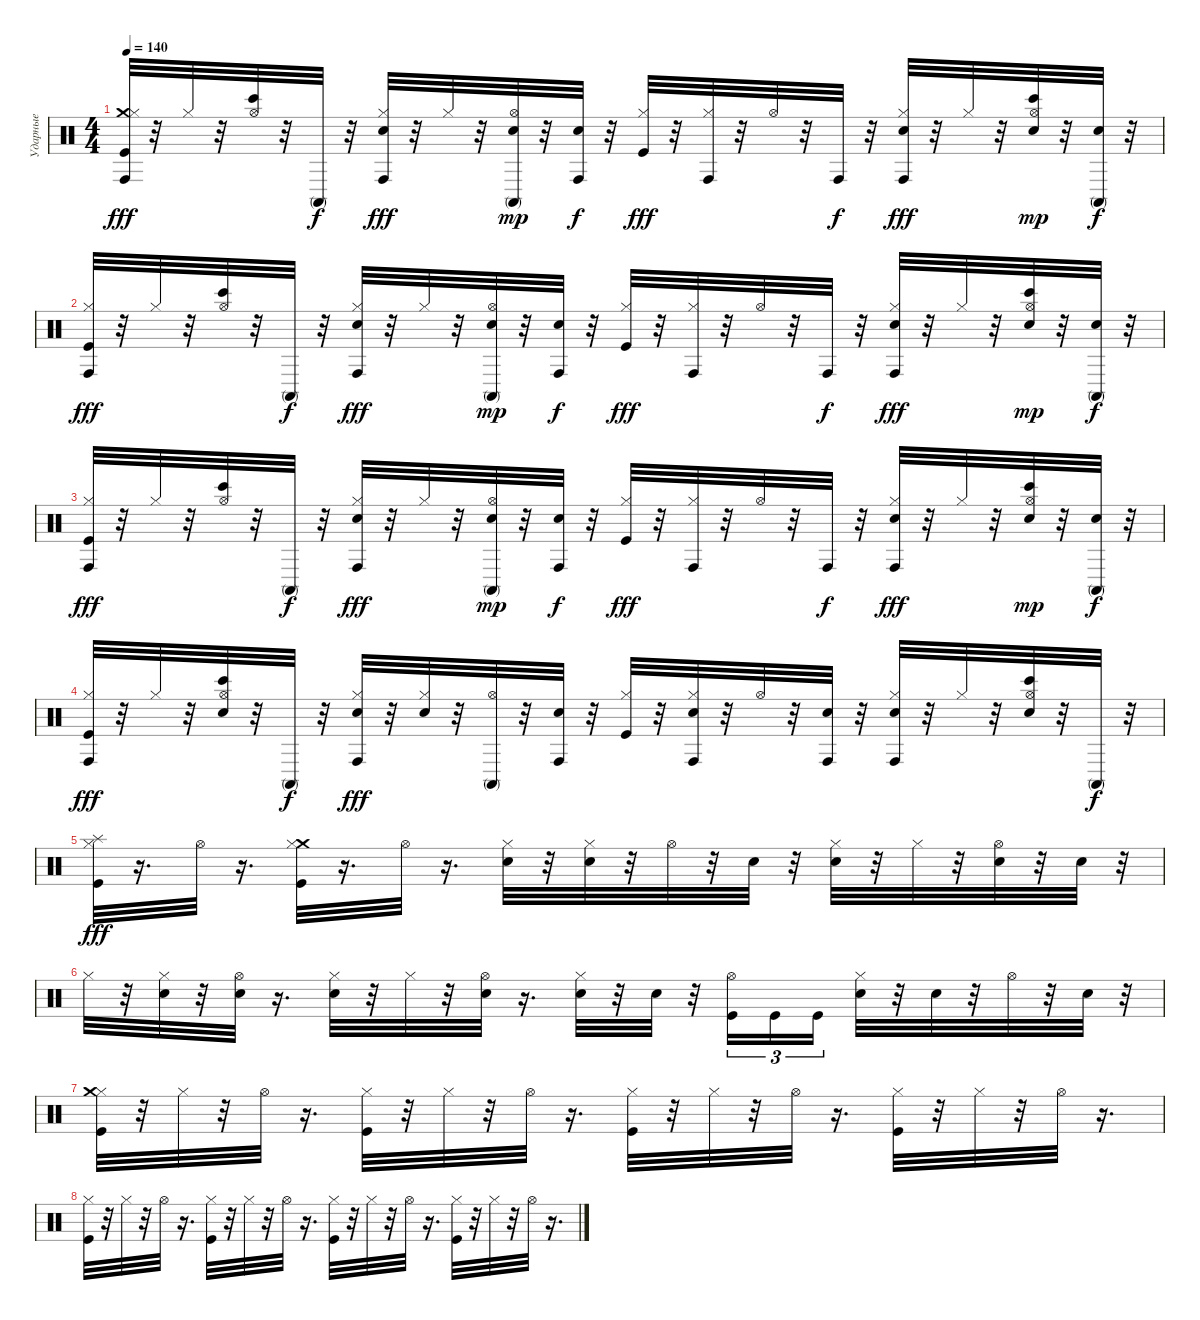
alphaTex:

\track ("Ударные" "Ударные") {instrument percussion}
\staff {score}
\articulation defaults
\ts (4 4)
\tempo 140
\clef neutral
\ks c
("Conga high (hit)" "Crash medium (hit)" "Hi-Hat (closed)" "Kick (hit)").32{dy fff} r.32 "Hi-Hat (closed)".32 r.32 ("Bongo High (hit)" "Hi-Hat (open)").32 r.32 "Conga high (mute)".32{dy f} r.32 ("Conga high (hit)" "Hi-Hat (closed)" "Electric Snare (hit)").32{dy fff} r.32 "Hi-Hat (closed)".32 r.32 ("Conga high (mute)" "Hi-Hat (open)" "Electric Snare (hit)").32{dy mp} r.32 ("Conga high (hit)" "Electric Snare (hit)").32{dy f} r.32 ("Hi-Hat (closed)" "Kick (hit)").32{dy fff} r.32 ("Conga high (hit)" "Hi-Hat (closed)").32 r.32 "Hi-Hat (open)".32 r.32 "Conga high (hit)".32{dy f} r.32 ("Conga high (hit)" "Hi-Hat (closed)" "Electric Snare (hit)").32{dy fff} r.32 "Hi-Hat (closed)".32 r.32 ("Bongo High (hit)" "Hi-Hat (open)" "Electric Snare (hit)").32{dy mp} r.32 ("Conga high (mute)" "Electric Snare (hit)").32{dy f} r.32 |
("Hi-Hat (closed)" "Kick (hit)" "Conga high (hit)").32{dy fff} r.32 "Hi-Hat (closed)".32 r.32 ("Hi-Hat (open)" "Bongo High (hit)").32 r.32 "Conga high (mute)".32{dy f} r.32 ("Hi-Hat (closed)" "Electric Snare (hit)" "Conga high (hit)").32{dy fff} r.32 "Hi-Hat (closed)".32 r.32 ("Hi-Hat (open)" "Electric Snare (hit)" "Conga high (mute)").32{dy mp} r.32 ("Electric Snare (hit)" "Conga high (hit)").32{dy f} r.32 ("Hi-Hat (closed)" "Kick (hit)").32{dy fff} r.32 ("Hi-Hat (closed)" "Conga high (hit)").32 r.32 "Hi-Hat (open)".32 r.32 "Conga high (hit)".32{dy f} r.32 ("Hi-Hat (closed)" "Electric Snare (hit)" "Conga high (hit)").32{dy fff} r.32 "Hi-Hat (closed)".32 r.32 ("Hi-Hat (open)" "Electric Snare (hit)" "Bongo High (hit)").32{dy mp} r.32 ("Electric Snare (hit)" "Conga high (mute)").32{dy f} r.32 |
("Kick (hit)" "Hi-Hat (closed)" "Conga high (hit)").32{dy fff} r.32 "Hi-Hat (closed)".32 r.32 ("Bongo High (hit)" "Hi-Hat (open)").32 r.32 "Conga high (mute)".32{dy f} r.32 ("Conga high (hit)" "Hi-Hat (closed)" "Electric Snare (hit)").32{dy fff} r.32 "Hi-Hat (closed)".32 r.32 ("Conga high (mute)" "Hi-Hat (open)" "Electric Snare (hit)").32{dy mp} r.32 ("Conga high (hit)" "Electric Snare (hit)").32{dy f} r.32 ("Hi-Hat (closed)" "Kick (hit)").32{dy fff} r.32 ("Conga high (hit)" "Hi-Hat (closed)").32 r.32 "Hi-Hat (open)".32 r.32 "Conga high (hit)".32{dy f} r.32 ("Conga high (hit)" "Hi-Hat (closed)" "Electric Snare (hit)").32{dy fff} r.32 "Hi-Hat (closed)".32 r.32 ("Bongo High (hit)" "Hi-Hat (open)" "Electric Snare (hit)").32{dy mp} r.32 ("Conga high (mute)" "Electric Snare (hit)").32{dy f} r.32 |
("Hi-Hat (closed)" "Kick (hit)" "Conga high (hit)").32{dy fff} r.32 "Hi-Hat (closed)".32 r.32 ("Hi-Hat (open)" "Bongo High (hit)" "Electric Snare (hit)").32 r.32 "Conga high (mute)".32{dy f} r.32 ("Hi-Hat (closed)" "Conga high (hit)" "Electric Snare (hit)").32{dy fff} r.32 ("Hi-Hat (closed)" "Electric Snare (hit)").32 r.32 ("Hi-Hat (open)" "Conga high (mute)").32 r.32 ("Conga high (hit)" "Electric Snare (hit)").32 r.32 ("Hi-Hat (closed)" "Kick (hit)").32 r.32 ("Hi-Hat (closed)" "Conga high (hit)" "Electric Snare (hit)").32 r.32 "Hi-Hat (open)".32 r.32 ("Conga high (hit)" "Electric Snare (hit)").32 r.32 ("Hi-Hat (closed)" "Conga high (hit)" "Electric Snare (hit)").32 r.32 "Hi-Hat (closed)".32 r.32 ("Hi-Hat (open)" "Bongo High (hit)" "Electric Snare (hit)").32 r.32 "Conga high (mute)".32{dy f} r.32 |
("Kick (hit)" "Hi-Hat (closed)" "Splash (hit)").32{dy fff} r.16{d} "Hi-Hat (open)".32 r.16{d} ("Kick (hit)" "Crash medium (hit)" "Hi-Hat (closed)").32 r.16{d} "Hi-Hat (open)".32 r.16{d} ("Hi-Hat (closed)" "Electric Snare (hit)").32 r.32 ("Hi-Hat (closed)" "Electric Snare (hit)").32 r.32 "Hi-Hat (open)".32 r.32 "Electric Snare (hit)".32 r.32 ("Hi-Hat (closed)" "Electric Snare (hit)").32 r.32 "Hi-Hat (closed)".32 r.32 ("Hi-Hat (open)" "Electric Snare (hit)").32 r.32 "Electric Snare (hit)".32 r.32 |
"Hi-Hat (closed)".32 r.32 ("Electric Snare (hit)" "Hi-Hat (closed)").32 r.32 ("Electric Snare (hit)" "Hi-Hat (open)").32 r.16{d} ("Electric Snare (hit)" "Hi-Hat (closed)").32 r.32 "Hi-Hat (closed)".32 r.32 ("Electric Snare (hit)" "Hi-Hat (open)").32 r.16{d} ("Hi-Hat (closed)" "Electric Snare (hit)").32 r.32 "Electric Snare (hit)".32 r.32 ("Hi-Hat (open)" "Kick (hit)").16{tu (3 2)} "Kick (hit)".16{tu (3 2)} "Kick (hit)".16{tu (3 2)} ("Hi-Hat (closed)" "Electric Snare (hit)").32 r.32 "Electric Snare (hit)".32 r.32 "Hi-Hat (open)".32 r.32 "Electric Snare (hit)".32 r.32 |
("Hi-Hat (closed)" "Crash medium (hit)" "Kick (hit)").32 r.32 "Hi-Hat (closed)".32 r.32 "Hi-Hat (open)".32 r.16{d} ("Hi-Hat (closed)" "Kick (hit)").32 r.32 "Hi-Hat (closed)".32 r.32 "Hi-Hat (open)".32 r.16{d} ("Hi-Hat (closed)" "Kick (hit)").32 r.32 "Hi-Hat (closed)".32 r.32 "Hi-Hat (open)".32 r.16{d} ("Hi-Hat (closed)" "Kick (hit)").32 r.32 "Hi-Hat (closed)".32 r.32 "Hi-Hat (open)".32 r.16{d} |
("Kick (hit)" "Hi-Hat (closed)").32 r.32 "Hi-Hat (closed)".32 r.32 "Hi-Hat (open)".32 r.16{d} ("Hi-Hat (closed)" "Kick (hit)").32 r.32 "Hi-Hat (closed)".32 r.32 "Hi-Hat (open)".32 r.16{d} ("Hi-Hat (closed)" "Kick (hit)").32 r.32 "Hi-Hat (closed)".32 r.32 "Hi-Hat (open)".32 r.16{d} ("Hi-Hat (closed)" "Kick (hit)").32 r.32 "Hi-Hat (closed)".32 r.32 "Hi-Hat (open)".32 r.16{d}
